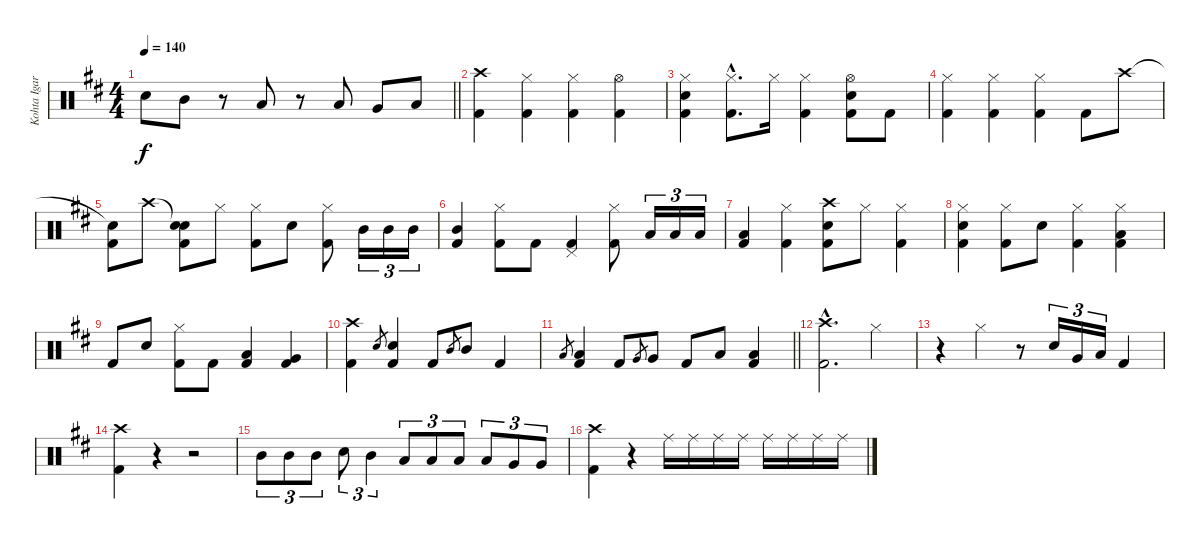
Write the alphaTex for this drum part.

\track ("Kohta Igarashi" "Kohta Igar") {instrument percussion}
\staff {score}
\articulation defaults
\ts (4 4)
\tempo 140
\clef neutral
\barLineRight lightlight
\ks d "Electric Snare (hit)".8{dy f} "Mid Tom (hit)".8
r.8 "Low Tom (hit)".8 r.8 "Low Tom (hit)".8 "Very Low Tom (hit)".8 "Low Floor Tom (hit)".8 |
("Crash high (hit)" "Kick (hit) 2").4 ("Hi-Hat (closed)" "Kick (hit) 2").4 ("Hi-Hat (closed)" "Kick (hit) 2").4 ("Hi-Hat (open)" "Kick (hit) 2").4 |
("Hi-Hat (closed)" "Electric Snare (hit)" "Kick (hit) 2").4 ("Hi-Hat (closed)"{hac} "Kick (hit) 2"{hac}).8{d} "Hi-Hat (closed)".16 ("Hi-Hat (closed)" "Kick (hit) 2").4 ("Hi-Hat (open)" "Electric Snare (hit)" "Kick (hit) 2").8 "Kick (hit) 2".8 |
("Hi-Hat (closed)" "Kick (hit) 2").4 ("Hi-Hat (closed)" "Kick (hit) 2").4 ("Hi-Hat (closed)" "Kick (hit) 2").4 "Kick (hit) 2".8 "Crash high (hit)".8 |
("Snare (hit)"{t} "Kick (hit) 2").8 "Crash high (hit)".8 ("Snare (hit)"{t} "Electric Snare (hit)" "Kick (hit) 2").8 "Hi-Hat (closed)".8 ("Hi-Hat (closed)" "Kick (hit) 2").8 "Electric Snare (hit)".8 ("Hi-Hat (closed)" "Kick (hit) 2").8 "Mid Tom (hit)".16{tu (3 2)} "Mid Tom (hit)".16{tu (3 2)} "Mid Tom (hit)".16{tu (3 2)} |
("Mid Tom (hit)" "Kick (hit) 2").4 ("Hi-Hat (closed)" "Kick (hit) 2").8 "Kick (hit) 2".8 ("Pedal Hi-Hat (hit)" "Kick (hit) 2").4 ("Hi-Hat (closed)" "Kick (hit) 2").8 "Low Floor Tom (hit)".16{tu (3 2)} "Low Floor Tom (hit)".16{tu (3 2)} "Low Floor Tom (hit)".16{tu (3 2)} |
("Low Floor Tom (hit)" "Kick (hit) 2").4 ("Hi-Hat (closed)" "Kick (hit) 2").4 ("Crash high (hit)" "Electric Snare (hit)" "Kick (hit) 2").8 "Hi-Hat (closed)".8 ("Hi-Hat (closed)" "Kick (hit) 2").4 |
("Hi-Hat (closed)" "Electric Snare (hit)" "Kick (hit) 2").4 ("Hi-Hat (closed)" "Kick (hit) 2").8 "Electric Snare (hit)".8 ("Hi-Hat (closed)" "Kick (hit) 2").4 ("Hi-Hat (closed)" "Low Floor Tom (hit)" "Kick (hit) 2").4 |
"Kick (hit) 2".8 "Electric Snare (hit)".8 ("Hi-Hat (closed)" "Kick (hit) 2").8 "Kick (hit) 2".8 ("Low Tom (hit)" "Kick (hit) 2").4 ("Very Low Tom (hit)" "Kick (hit) 2").4 |
("Crash high (hit)" "Kick (hit) 2").4 "Electric Snare (hit)".8{gr} ("Electric Snare (hit)" "Kick (hit) 2").4 "Kick (hit) 2".8 "Mid Tom (hit)".8{gr} "Mid Tom (hit)".8 "Kick (hit) 2".4 |
\barLineRight lightlight "Low Tom (hit)".8{gr}
("Low Tom (hit)" "Kick (hit) 2").4 "Kick (hit) 2".8 "Very Low Tom (hit)".8{gr} "Very Low Tom (hit)".8 "Kick (hit) 2".8 "Low Floor Tom (hit)".8 ("Low Floor Tom (hit)" "Kick (hit) 2").4 |
("Crash high (hit)"{hac} "Kick (hit) 2"{hac}).2{d} "Hi-Hat (closed)".4 |
r.4 "Hi-Hat (closed)".4 r.8 "Electric Snare (hit)".16{tu (3 2)} "Very Low Tom (hit)".16{tu (3 2)} "Low Floor Tom (hit)".16{tu (3 2)} "Kick (hit) 2".4 |
("Crash high (hit)" "Kick (hit) 2").4 r.4 r.2 |
"Mid Tom (hit)".8{tu (3 2)} "Mid Tom (hit)".8{tu (3 2)} "Mid Tom (hit)".8{tu (3 2)} "Electric Snare (hit)".8{tu (3 2)} "Mid Tom (hit)".4{tu (3 2)} "Low Tom (hit)".8{tu (3 2)} "Low Tom (hit)".8{tu (3 2)} "Low Tom (hit)".8{tu (3 2)} "Low Tom (hit)".8{tu (3 2)} "Very Low Tom (hit)".8{tu (3 2)} "Very Low Tom (hit)".8{tu (3 2)} |
("Crash high (hit)" "Kick (hit) 2").4 r.4 "Ride (middle)".16 "Ride (middle)".16 "Ride (middle)".16 "Ride (middle)".16 "Ride (middle)".16 "Ride (middle)".16 "Ride (middle)".16 "Ride (middle)".16
